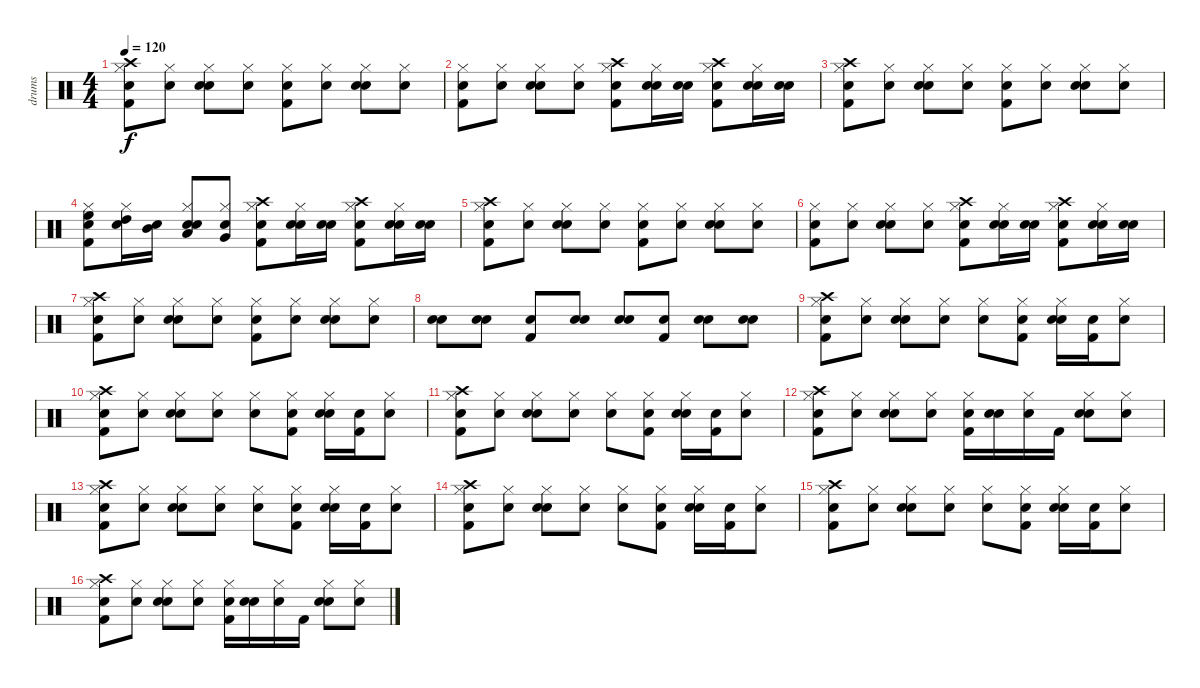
\track ("drums" "drums") {instrument percussion}
\staff {score}
\articulation defaults
\ts (4 4)
\tempo 120
\clef neutral
\ks c
("Snare (hit)" "Kick (hit) 2" "Hi-Hat (closed)" "Crash high (hit)").8{dy f} ("Snare (hit)" "Hi-Hat (closed)").8 ("Snare (hit)" "Snare (hit) 2" "Hi-Hat (closed)").8 ("Snare (hit)" "Hi-Hat (closed)").8 ("Snare (hit)" "Kick (hit) 2" "Hi-Hat (closed)").8 ("Snare (hit)" "Hi-Hat (closed)").8 ("Snare (hit)" "Snare (hit) 2" "Hi-Hat (closed)").8 ("Snare (hit)" "Hi-Hat (closed)").8 |
("Snare (hit)" "Kick (hit) 2" "Hi-Hat (closed)").8 ("Snare (hit)" "Hi-Hat (closed)").8 ("Snare (hit)" "Snare (hit) 2" "Hi-Hat (closed)").8 ("Snare (hit)" "Hi-Hat (closed)").8 ("Snare (hit)" "Kick (hit) 2" "Hi-Hat (closed)" "Crash high (hit)").8 ("Snare (hit)" "Snare (hit) 2" "Hi-Hat (closed)").16 ("Snare (hit)" "Snare (hit) 2").16 ("Snare (hit)" "Kick (hit) 2" "Hi-Hat (closed)" "Crash high (hit)").8 ("Snare (hit)" "Snare (hit) 2" "Hi-Hat (closed)").16 ("Snare (hit)" "Snare (hit) 2").16 |
("Snare (hit)" "Kick (hit) 2" "Hi-Hat (closed)" "Crash high (hit)").8 ("Snare (hit)" "Hi-Hat (closed)").8 ("Snare (hit)" "Snare (hit) 2" "Hi-Hat (closed)").8 ("Snare (hit)" "Hi-Hat (closed)").8 ("Snare (hit)" "Kick (hit) 2" "Hi-Hat (closed)").8 ("Snare (hit)" "Hi-Hat (closed)").8 ("Snare (hit)" "Snare (hit) 2" "Hi-Hat (closed)").8 ("Snare (hit)" "Hi-Hat (closed)").8 |
("Snare (hit)" "Kick (hit) 2" "Hi-Hat (closed)" "High Floor Tom (hit)").8 ("Snare (hit)" "Hi-Hat (closed)" "High Tom (hit)").16 ("Snare (hit)" "Mid Tom (hit)").16 ("Snare (hit)" "Snare (hit) 2" "Hi-Hat (closed)" "Low Tom (hit)").8 ("Snare (hit)" "Hi-Hat (closed)" "Very Low Tom (hit)").8 ("Snare (hit)" "Kick (hit) 2" "Hi-Hat (closed)" "Crash high (hit)").8 ("Snare (hit)" "Snare (hit) 2" "Hi-Hat (closed)").16 ("Snare (hit)" "Snare (hit) 2").16 ("Snare (hit)" "Kick (hit) 2" "Hi-Hat (closed)" "Crash high (hit)").8 ("Snare (hit)" "Snare (hit) 2" "Hi-Hat (closed)").16 ("Snare (hit)" "Snare (hit) 2").16 |
("Snare (hit)" "Kick (hit) 2" "Hi-Hat (closed)" "Crash high (hit)").8 ("Snare (hit)" "Hi-Hat (closed)").8 ("Snare (hit)" "Snare (hit) 2" "Hi-Hat (closed)").8 ("Snare (hit)" "Hi-Hat (closed)").8 ("Snare (hit)" "Kick (hit) 2" "Hi-Hat (closed)").8 ("Snare (hit)" "Hi-Hat (closed)").8 ("Snare (hit)" "Snare (hit) 2" "Hi-Hat (closed)").8 ("Snare (hit)" "Hi-Hat (closed)").8 |
("Snare (hit)" "Kick (hit) 2" "Hi-Hat (closed)").8 ("Snare (hit)" "Hi-Hat (closed)").8 ("Snare (hit)" "Snare (hit) 2" "Hi-Hat (closed)").8 ("Snare (hit)" "Hi-Hat (closed)").8 ("Snare (hit)" "Kick (hit) 2" "Hi-Hat (closed)" "Crash high (hit)").8 ("Snare (hit)" "Snare (hit) 2" "Hi-Hat (closed)").16 ("Snare (hit)" "Snare (hit) 2").16 ("Snare (hit)" "Kick (hit) 2" "Hi-Hat (closed)" "Crash high (hit)").8 ("Snare (hit)" "Snare (hit) 2" "Hi-Hat (closed)").16 ("Snare (hit)" "Snare (hit) 2").16 |
("Snare (hit)" "Kick (hit) 2" "Hi-Hat (closed)" "Crash high (hit)").8 ("Snare (hit)" "Hi-Hat (closed)").8 ("Snare (hit)" "Snare (hit) 2" "Hi-Hat (closed)").8 ("Snare (hit)" "Hi-Hat (closed)").8 ("Snare (hit)" "Kick (hit) 2" "Hi-Hat (closed)").8 ("Snare (hit)" "Hi-Hat (closed)").8 ("Snare (hit)" "Snare (hit) 2" "Hi-Hat (closed)").8 ("Snare (hit)" "Hi-Hat (closed)").8 |
("Snare (hit)" "Snare (hit) 2").8 ("Snare (hit)" "Snare (hit) 2").8 ("Snare (hit)" "Kick (hit) 2").8 ("Snare (hit)" "Snare (hit) 2").8 ("Snare (hit)" "Snare (hit) 2").8 ("Snare (hit)" "Kick (hit) 2").8 ("Snare (hit)" "Snare (hit) 2").8 ("Snare (hit)" "Snare (hit) 2").8 |
("Snare (hit)" "Kick (hit) 2" "Hi-Hat (closed)" "Crash high (hit)").8 ("Snare (hit)" "Hi-Hat (closed)").8 ("Snare (hit)" "Snare (hit) 2" "Hi-Hat (closed)").8 ("Snare (hit)" "Hi-Hat (closed)").8 ("Snare (hit)" "Hi-Hat (closed)").8 ("Snare (hit)" "Kick (hit) 2" "Hi-Hat (closed)").8 ("Snare (hit)" "Snare (hit) 2" "Hi-Hat (closed)").16 ("Snare (hit)" "Kick (hit) 2").16 ("Snare (hit)" "Hi-Hat (closed)").8 |
("Snare (hit)" "Kick (hit) 2" "Hi-Hat (closed)" "Crash high (hit)").8 ("Snare (hit)" "Hi-Hat (closed)").8 ("Snare (hit)" "Snare (hit) 2" "Hi-Hat (closed)").8 ("Snare (hit)" "Hi-Hat (closed)").8 ("Snare (hit)" "Hi-Hat (closed)").8 ("Snare (hit)" "Kick (hit) 2" "Hi-Hat (closed)").8 ("Snare (hit)" "Snare (hit) 2" "Hi-Hat (closed)").16 ("Snare (hit)" "Kick (hit) 2").16 ("Snare (hit)" "Hi-Hat (closed)").8 |
("Snare (hit)" "Kick (hit) 2" "Hi-Hat (closed)" "Crash high (hit)").8 ("Snare (hit)" "Hi-Hat (closed)").8 ("Snare (hit)" "Snare (hit) 2" "Hi-Hat (closed)").8 ("Snare (hit)" "Hi-Hat (closed)").8 ("Snare (hit)" "Hi-Hat (closed)").8 ("Snare (hit)" "Kick (hit) 2" "Hi-Hat (closed)").8 ("Snare (hit)" "Snare (hit) 2" "Hi-Hat (closed)").16 ("Snare (hit)" "Kick (hit) 2").16 ("Snare (hit)" "Hi-Hat (closed)").8 |
("Snare (hit)" "Kick (hit) 2" "Hi-Hat (closed)" "Crash high (hit)").8 ("Snare (hit)" "Hi-Hat (closed)").8 ("Snare (hit)" "Snare (hit) 2" "Hi-Hat (closed)").8 ("Snare (hit)" "Hi-Hat (closed)").8 ("Snare (hit)" "Kick (hit) 2" "Hi-Hat (closed)").16 ("Snare (hit)" "Snare (hit) 2").16 ("Snare (hit)" "Hi-Hat (closed)").16 "Kick (hit) 2".16 ("Snare (hit)" "Snare (hit) 2" "Hi-Hat (closed)").8 ("Snare (hit)" "Hi-Hat (closed)").8 |
("Snare (hit)" "Kick (hit) 2" "Hi-Hat (closed)" "Crash high (hit)").8 ("Snare (hit)" "Hi-Hat (closed)").8 ("Snare (hit)" "Snare (hit) 2" "Hi-Hat (closed)").8 ("Snare (hit)" "Hi-Hat (closed)").8 ("Snare (hit)" "Hi-Hat (closed)").8 ("Snare (hit)" "Kick (hit) 2" "Hi-Hat (closed)").8 ("Snare (hit)" "Snare (hit) 2" "Hi-Hat (closed)").16 ("Snare (hit)" "Kick (hit) 2").16 ("Snare (hit)" "Hi-Hat (closed)").8 |
("Snare (hit)" "Kick (hit) 2" "Hi-Hat (closed)" "Crash high (hit)").8 ("Snare (hit)" "Hi-Hat (closed)").8 ("Snare (hit)" "Snare (hit) 2" "Hi-Hat (closed)").8 ("Snare (hit)" "Hi-Hat (closed)").8 ("Snare (hit)" "Hi-Hat (closed)").8 ("Snare (hit)" "Kick (hit) 2" "Hi-Hat (closed)").8 ("Snare (hit)" "Snare (hit) 2" "Hi-Hat (closed)").16 ("Snare (hit)" "Kick (hit) 2").16 ("Snare (hit)" "Hi-Hat (closed)").8 |
("Snare (hit)" "Kick (hit) 2" "Hi-Hat (closed)" "Crash high (hit)").8 ("Snare (hit)" "Hi-Hat (closed)").8 ("Snare (hit)" "Snare (hit) 2" "Hi-Hat (closed)").8 ("Snare (hit)" "Hi-Hat (closed)").8 ("Snare (hit)" "Hi-Hat (closed)").8 ("Snare (hit)" "Kick (hit) 2" "Hi-Hat (closed)").8 ("Snare (hit)" "Snare (hit) 2" "Hi-Hat (closed)").16 ("Snare (hit)" "Kick (hit) 2").16 ("Snare (hit)" "Hi-Hat (closed)").8 |
("Snare (hit)" "Kick (hit) 2" "Hi-Hat (closed)" "Crash high (hit)").8 ("Snare (hit)" "Hi-Hat (closed)").8 ("Snare (hit)" "Snare (hit) 2" "Hi-Hat (closed)").8 ("Snare (hit)" "Hi-Hat (closed)").8 ("Snare (hit)" "Kick (hit) 2" "Hi-Hat (closed)").16 ("Snare (hit)" "Snare (hit) 2").16 ("Snare (hit)" "Hi-Hat (closed)").16 "Kick (hit) 2".16 ("Snare (hit)" "Snare (hit) 2" "Hi-Hat (closed)").8 ("Snare (hit)" "Hi-Hat (closed)").8
